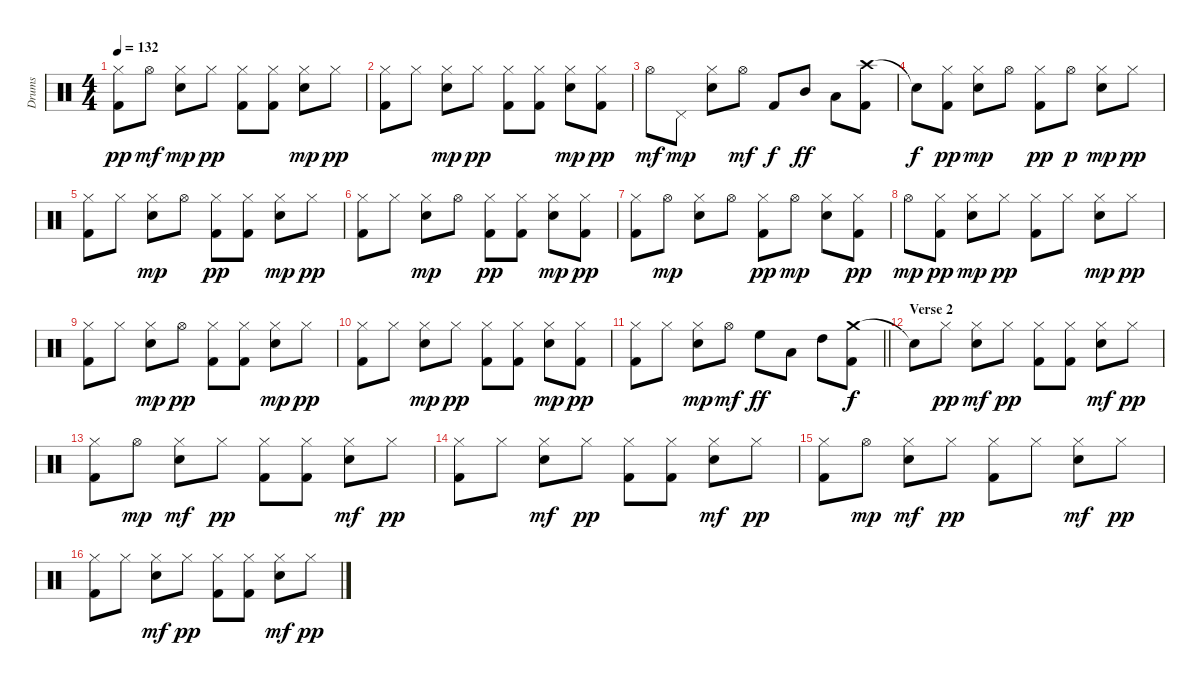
\track ("Drums" "Drums") {instrument percussion}
\staff {score}
\articulation defaults
\ts (4 4)
\tempo 132
\clef neutral
\ks c
("Hi-Hat (closed)" "Kick (hit) 2").8{dy pp} "Hi-Hat (open)".8{dy mf} ("Hi-Hat (closed)" "Snare (hit) 2").8{dy mp} "Hi-Hat (closed)".8{dy pp} ("Hi-Hat (closed)" "Kick (hit) 2").8 ("Hi-Hat (closed)" "Kick (hit) 2").8 ("Hi-Hat (closed)" "Snare (hit) 2").8{dy mp} "Hi-Hat (closed)".8{dy pp} |
("Hi-Hat (closed)" "Kick (hit) 2").8 "Hi-Hat (closed)".8 ("Hi-Hat (closed)" "Snare (hit) 2").8{dy mp} "Hi-Hat (closed)".8{dy pp} ("Hi-Hat (closed)" "Kick (hit) 2").8 ("Hi-Hat (closed)" "Kick (hit) 2").8 ("Hi-Hat (closed)" "Snare (hit) 2").8{dy mp} ("Hi-Hat (closed)" "Kick (hit) 2").8{dy pp} |
"Hi-Hat (open)".8{dy mf} "Pedal Hi-Hat (hit)".8{dy mp} ("Hi-Hat (closed)" "Snare (hit) 2").8 "Hi-Hat (open)".8{dy mf} "Kick (hit) 2".8{dy f} "Mid Tom (hit)".8{dy ff} "Low Tom (hit)".8 ("Crash high (hit)" "Kick (hit) 2").8 |
"Snare (hit)"{t}.8{dy f} ("Hi-Hat (closed)" "Kick (hit) 2").8{dy pp} ("Hi-Hat (closed)" "Snare (hit) 2").8{dy mp} "Hi-Hat (open)".8 ("Hi-Hat (closed)" "Kick (hit) 2").8{dy pp} "Hi-Hat (open)".8{dy p} ("Hi-Hat (closed)" "Snare (hit) 2").8{dy mp} "Hi-Hat (closed)".8{dy pp} |
("Hi-Hat (closed)" "Kick (hit) 2").8 "Hi-Hat (closed)".8 ("Hi-Hat (closed)" "Snare (hit) 2").8{dy mp} "Hi-Hat (open)".8 ("Hi-Hat (closed)" "Kick (hit) 2").8{dy pp} ("Hi-Hat (closed)" "Kick (hit) 2").8 ("Hi-Hat (closed)" "Snare (hit) 2").8{dy mp} "Hi-Hat (closed)".8{dy pp} |
("Hi-Hat (closed)" "Kick (hit) 2").8 "Hi-Hat (closed)".8 ("Hi-Hat (closed)" "Snare (hit) 2").8{dy mp} "Hi-Hat (open)".8 ("Hi-Hat (closed)" "Kick (hit) 2").8{dy pp} ("Hi-Hat (closed)" "Kick (hit) 2").8 ("Hi-Hat (closed)" "Snare (hit) 2").8{dy mp} ("Hi-Hat (closed)" "Kick (hit) 2").8{dy pp} |
("Hi-Hat (closed)" "Kick (hit) 2").8 "Hi-Hat (open)".8{dy mp} ("Hi-Hat (closed)" "Snare (hit) 2").8 "Hi-Hat (open)".8 ("Hi-Hat (closed)" "Kick (hit) 2").8{dy pp} "Hi-Hat (open)".8{dy mp} ("Hi-Hat (closed)" "Snare (hit) 2").8 ("Hi-Hat (closed)" "Kick (hit) 2").8{dy pp} |
"Hi-Hat (open)".8{dy mp} ("Hi-Hat (closed)" "Kick (hit) 2").8{dy pp} ("Hi-Hat (closed)" "Snare (hit) 2").8{dy mp} "Hi-Hat (closed)".8{dy pp} ("Hi-Hat (closed)" "Kick (hit) 2").8 "Hi-Hat (closed)".8 ("Hi-Hat (closed)" "Snare (hit) 2").8{dy mp} "Hi-Hat (closed)".8{dy pp} |
("Hi-Hat (closed)" "Kick (hit) 2").8 "Hi-Hat (closed)".8 ("Hi-Hat (closed)" "Snare (hit) 2").8{dy mp} "Hi-Hat (open)".8{dy pp} ("Hi-Hat (closed)" "Kick (hit) 2").8 ("Hi-Hat (closed)" "Kick (hit) 2").8 ("Hi-Hat (closed)" "Snare (hit) 2").8{dy mp} "Hi-Hat (closed)".8{dy pp} |
("Hi-Hat (closed)" "Kick (hit) 2").8 "Hi-Hat (closed)".8 ("Hi-Hat (closed)" "Snare (hit) 2").8{dy mp} "Hi-Hat (closed)".8{dy pp} ("Hi-Hat (closed)" "Kick (hit) 2").8 ("Hi-Hat (closed)" "Kick (hit) 2").8 ("Hi-Hat (closed)" "Snare (hit) 2").8{dy mp} ("Hi-Hat (closed)" "Kick (hit) 2").8{dy pp} |
\barLineRight lightlight
("Hi-Hat (closed)" "Kick (hit) 2").8 "Hi-Hat (closed)".8 ("Hi-Hat (closed)" "Snare (hit) 2").8{dy mp} "Hi-Hat (open)".8{dy mf} "High Floor Tom (hit)".8{dy ff} "Low Tom (hit)".8 "High Tom (hit)".8 ("Crash medium (hit)" "Kick (hit) 2").8{dy f} |
\section ("" "Verse 2")
"Snare (hit)"{t}.8 "Hi-Hat (closed)".8{dy pp} ("Hi-Hat (closed)" "Snare (hit) 2").8{dy mf} "Hi-Hat (closed)".8{dy pp} ("Hi-Hat (closed)" "Kick (hit) 2").8 ("Hi-Hat (closed)" "Kick (hit) 2").8 ("Hi-Hat (closed)" "Snare (hit) 2").8{dy mf} "Hi-Hat (closed)".8{dy pp} |
("Hi-Hat (closed)" "Kick (hit) 2").8 "Hi-Hat (open)".8{dy mp} ("Hi-Hat (closed)" "Snare (hit) 2").8{dy mf} "Hi-Hat (closed)".8{dy pp} ("Hi-Hat (closed)" "Kick (hit) 2").8 ("Hi-Hat (closed)" "Kick (hit) 2").8 ("Hi-Hat (closed)" "Snare (hit) 2").8{dy mf} "Hi-Hat (closed)".8{dy pp} |
("Hi-Hat (closed)" "Kick (hit) 2").8 "Hi-Hat (closed)".8 ("Hi-Hat (closed)" "Snare (hit) 2").8{dy mf} "Hi-Hat (closed)".8{dy pp} ("Hi-Hat (closed)" "Kick (hit) 2").8 ("Hi-Hat (closed)" "Kick (hit) 2").8 ("Hi-Hat (closed)" "Snare (hit) 2").8{dy mf} "Hi-Hat (closed)".8{dy pp} |
("Hi-Hat (closed)" "Kick (hit) 2").8 "Hi-Hat (open)".8{dy mp} ("Hi-Hat (closed)" "Snare (hit) 2").8{dy mf} "Hi-Hat (closed)".8{dy pp} ("Hi-Hat (closed)" "Kick (hit) 2").8 "Hi-Hat (closed)".8 ("Hi-Hat (closed)" "Snare (hit) 2").8{dy mf} "Hi-Hat (closed)".8{dy pp} |
("Hi-Hat (closed)" "Kick (hit) 2").8 "Hi-Hat (closed)".8 ("Hi-Hat (closed)" "Snare (hit) 2").8{dy mf} "Hi-Hat (closed)".8{dy pp} ("Hi-Hat (closed)" "Kick (hit) 2").8 ("Hi-Hat (closed)" "Kick (hit) 2").8 ("Hi-Hat (closed)" "Snare (hit) 2").8{dy mf} "Hi-Hat (closed)".8{dy pp}
